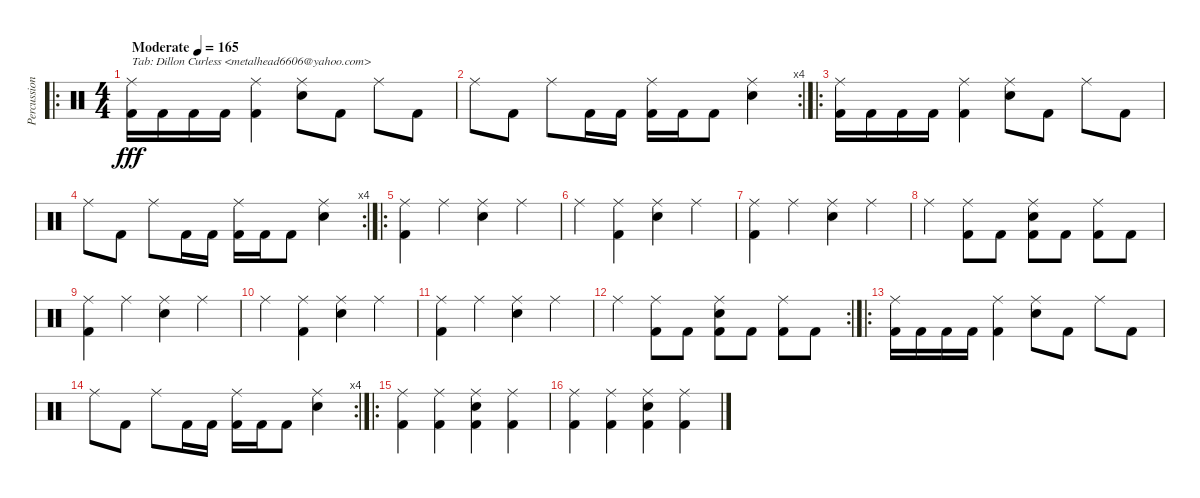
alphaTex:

\track ("Percussion" "Percussion") {instrument percussion}
\staff {score}
\articulation defaults
\ro
\ts (4 4)
\tempo (165 "Moderate")
\clef neutral
\ks c
("Ride (middle)" "Kick (hit) 2").16{txt "Tab: Dillon Curless <metalhead6606@yahoo.com>" dy fff} "Kick (hit) 2".16 "Kick (hit) 2".16 "Kick (hit) 2".16 ("Ride (middle)" "Kick (hit) 2").4 ("Ride (middle)" "Snare (hit) 2").8 "Kick (hit) 2".8 "Ride (middle)".8 "Kick (hit) 2".8 |
\rc 4 "Ride (middle)".8 "Kick (hit) 2".8 "Ride (middle)".8 "Kick (hit) 2".16 "Kick (hit) 2".16
("Ride (middle)" "Kick (hit) 2").16 "Kick (hit) 2".16 "Kick (hit) 2".8 ("Ride (middle)" "Snare (hit) 2").4 |
\ro
("Ride (middle)" "Kick (hit) 2").16 "Kick (hit) 2".16 "Kick (hit) 2".16 "Kick (hit) 2".16 ("Ride (middle)" "Kick (hit) 2").4 ("Ride (middle)" "Snare (hit) 2").8 "Kick (hit) 2".8 "Ride (middle)".8 "Kick (hit) 2".8 |
\rc 4 "Ride (middle)".8 "Kick (hit) 2".8 "Ride (middle)".8 "Kick (hit) 2".16 "Kick (hit) 2".16
("Ride (middle)" "Kick (hit) 2").16 "Kick (hit) 2".16 "Kick (hit) 2".8 ("Ride (middle)" "Snare (hit) 2").4 |
\ro
("Kick (hit) 2" "Ride (middle)").4 "Ride (middle)".4 ("Snare (hit) 2" "Ride (middle)").4 "Ride (middle)".4 |
"Ride (middle)".4 ("Kick (hit) 2" "Ride (middle)").4 ("Snare (hit) 2" "Ride (middle)").4 "Ride (middle)".4 |
("Kick (hit) 2" "Ride (middle)").4 "Ride (middle)".4 ("Snare (hit) 2" "Ride (middle)").4 "Ride (middle)".4 |
"Ride (middle)".4 ("Kick (hit) 2" "Ride (middle)").8 "Kick (hit) 2".8 ("Kick (hit) 2" "Snare (hit) 2" "Ride (middle)").8 "Kick (hit) 2".8 ("Kick (hit) 2" "Ride (middle)").8 "Kick (hit) 2".8 |
("Kick (hit) 2" "Ride (middle)").4 "Ride (middle)".4 ("Snare (hit) 2" "Ride (middle)").4 "Ride (middle)".4 |
"Ride (middle)".4 ("Kick (hit) 2" "Ride (middle)").4 ("Snare (hit) 2" "Ride (middle)").4 "Ride (middle)".4 |
("Kick (hit) 2" "Ride (middle)").4 "Ride (middle)".4 ("Snare (hit) 2" "Ride (middle)").4 "Ride (middle)".4 |
\rc 2 "Ride (middle)".4
("Kick (hit) 2" "Ride (middle)").8 "Kick (hit) 2".8 ("Kick (hit) 2" "Snare (hit) 2" "Ride (middle)").8 "Kick (hit) 2".8 ("Kick (hit) 2" "Ride (middle)").8 "Kick (hit) 2".8 |
\ro
("Ride (middle)" "Kick (hit) 2").16 "Kick (hit) 2".16 "Kick (hit) 2".16 "Kick (hit) 2".16 ("Ride (middle)" "Kick (hit) 2").4 ("Ride (middle)" "Snare (hit) 2").8 "Kick (hit) 2".8 "Ride (middle)".8 "Kick (hit) 2".8 |
\rc 4 "Ride (middle)".8 "Kick (hit) 2".8 "Ride (middle)".8 "Kick (hit) 2".16 "Kick (hit) 2".16
("Ride (middle)" "Kick (hit) 2").16 "Kick (hit) 2".16 "Kick (hit) 2".8 ("Ride (middle)" "Snare (hit) 2").4 |
\ro
("Kick (hit) 2" "Ride (middle)").4 ("Kick (hit) 2" "Ride (middle)").4 ("Kick (hit) 2" "Ride (middle)" "Snare (hit) 2").4 ("Kick (hit) 2" "Ride (middle)").4 |
("Kick (hit) 2" "Ride (middle)").4 ("Kick (hit) 2" "Ride (middle)").4 ("Kick (hit) 2" "Ride (middle)" "Snare (hit) 2").4 ("Kick (hit) 2" "Ride (middle)").4
